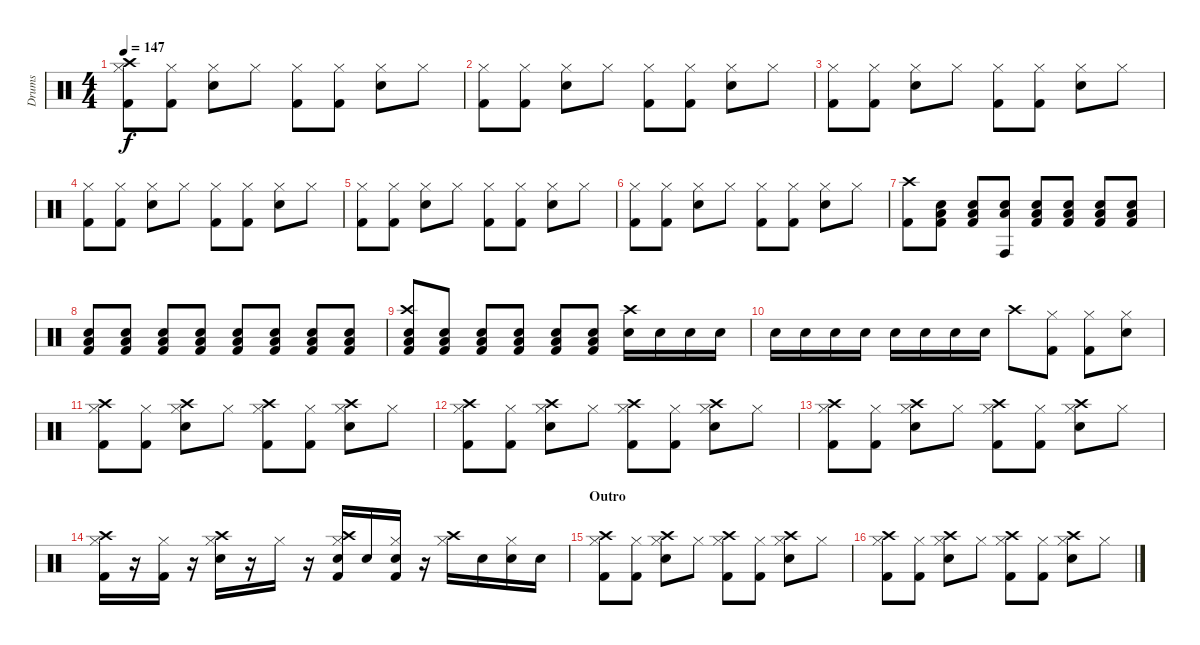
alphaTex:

\track ("Drums" "Drums") {instrument percussion}
\staff {score}
\articulation defaults
\ts (4 4)
\tempo 147
\clef neutral
\ks c
("Kick (hit) 2" "Hi-Hat (closed)" "Crash high (hit)").8{dy f} ("Kick (hit) 2" "Hi-Hat (closed)").8 ("Electric Snare (hit)" "Hi-Hat (closed)").8 "Hi-Hat (closed)".8 ("Kick (hit) 2" "Hi-Hat (closed)").8 ("Kick (hit) 2" "Hi-Hat (closed)").8 ("Electric Snare (hit)" "Hi-Hat (closed)").8 "Hi-Hat (closed)".8 |
("Kick (hit) 2" "Hi-Hat (closed)").8 ("Kick (hit) 2" "Hi-Hat (closed)").8 ("Electric Snare (hit)" "Hi-Hat (closed)").8 "Hi-Hat (closed)".8 ("Kick (hit) 2" "Hi-Hat (closed)").8 ("Kick (hit) 2" "Hi-Hat (closed)").8 ("Electric Snare (hit)" "Hi-Hat (closed)").8 "Hi-Hat (closed)".8 |
("Kick (hit) 2" "Hi-Hat (closed)").8 ("Kick (hit) 2" "Hi-Hat (closed)").8 ("Electric Snare (hit)" "Hi-Hat (closed)").8 "Hi-Hat (closed)".8 ("Kick (hit) 2" "Hi-Hat (closed)").8 ("Kick (hit) 2" "Hi-Hat (closed)").8 ("Electric Snare (hit)" "Hi-Hat (closed)").8 "Hi-Hat (closed)".8 |
("Kick (hit) 2" "Hi-Hat (closed)").8 ("Kick (hit) 2" "Hi-Hat (closed)").8 ("Electric Snare (hit)" "Hi-Hat (closed)").8 "Hi-Hat (closed)".8 ("Kick (hit) 2" "Hi-Hat (closed)").8 ("Kick (hit) 2" "Hi-Hat (closed)").8 ("Electric Snare (hit)" "Hi-Hat (closed)").8 "Hi-Hat (closed)".8 |
("Kick (hit) 2" "Hi-Hat (closed)").8 ("Kick (hit) 2" "Hi-Hat (closed)").8 ("Electric Snare (hit)" "Hi-Hat (closed)").8 "Hi-Hat (closed)".8 ("Kick (hit) 2" "Hi-Hat (closed)").8 ("Kick (hit) 2" "Hi-Hat (closed)").8 ("Electric Snare (hit)" "Hi-Hat (closed)").8 "Hi-Hat (closed)".8 |
("Kick (hit) 2" "Hi-Hat (closed)").8 ("Kick (hit) 2" "Hi-Hat (closed)").8 ("Electric Snare (hit)" "Hi-Hat (closed)").8 "Hi-Hat (closed)".8 ("Kick (hit) 2" "Hi-Hat (closed)").8 ("Kick (hit) 2" "Hi-Hat (closed)").8 ("Electric Snare (hit)" "Hi-Hat (closed)").8 "Hi-Hat (closed)".8 |
("Kick (hit) 2" "Crash high (hit)").8 ("Kick (hit) 2" "Electric Snare (hit)" "Low Tom (hit)").8 ("Kick (hit) 2" "Electric Snare (hit)" "Low Tom (hit)").8 ("Conga high (hit)" "Electric Snare (hit)" "Low Tom (hit)").8 ("Kick (hit) 2" "Electric Snare (hit)" "Low Tom (hit)").8 ("Kick (hit) 2" "Electric Snare (hit)" "Low Tom (hit)").8 ("Kick (hit) 2" "Electric Snare (hit)" "Low Tom (hit)").8 ("Kick (hit) 2" "Electric Snare (hit)" "Low Tom (hit)").8 |
("Kick (hit) 2" "Electric Snare (hit)" "Low Tom (hit)").8 ("Kick (hit) 2" "Electric Snare (hit)" "Low Tom (hit)").8 ("Kick (hit) 2" "Electric Snare (hit)" "Low Tom (hit)").8 ("Kick (hit) 2" "Electric Snare (hit)" "Low Tom (hit)").8 ("Kick (hit) 2" "Electric Snare (hit)" "Low Tom (hit)").8 ("Kick (hit) 2" "Electric Snare (hit)" "Low Tom (hit)").8 ("Kick (hit) 2" "Electric Snare (hit)" "Low Tom (hit)").8 ("Kick (hit) 2" "Electric Snare (hit)" "Low Tom (hit)").8 |
("Kick (hit) 2" "Electric Snare (hit)" "Low Tom (hit)" "Crash high (hit)").8 ("Kick (hit) 2" "Electric Snare (hit)" "Low Tom (hit)").8 ("Kick (hit) 2" "Electric Snare (hit)" "Low Tom (hit)").8 ("Kick (hit) 2" "Electric Snare (hit)" "Low Tom (hit)").8 ("Kick (hit) 2" "Electric Snare (hit)" "Low Tom (hit)").8 ("Kick (hit) 2" "Electric Snare (hit)" "Low Tom (hit)").8 ("Electric Snare (hit)" "Crash high (hit)").16 "Electric Snare (hit)".16 "Electric Snare (hit)".16 "Electric Snare (hit)".16 |
"Electric Snare (hit)".16 "Electric Snare (hit)".16 "Electric Snare (hit)".16 "Electric Snare (hit)".16 "Electric Snare (hit)".16 "Electric Snare (hit)".16 "Electric Snare (hit)".16 "Electric Snare (hit)".16 "Crash high (hit)".8 ("Kick (hit) 2" "Hi-Hat (closed)").8 ("Kick (hit) 2" "Hi-Hat (closed)").8 ("Electric Snare (hit)" "Hi-Hat (closed)").8 |
("Kick (hit) 2" "Hi-Hat (closed)" "Crash high (hit)").8 ("Kick (hit) 2" "Hi-Hat (closed)").8 ("Electric Snare (hit)" "Hi-Hat (closed)" "Crash high (hit)").8 "Hi-Hat (closed)".8 ("Kick (hit) 2" "Hi-Hat (closed)" "Crash high (hit)").8 ("Kick (hit) 2" "Hi-Hat (closed)").8 ("Electric Snare (hit)" "Hi-Hat (closed)" "Crash high (hit)").8 "Hi-Hat (closed)".8 |
("Kick (hit) 2" "Hi-Hat (closed)" "Crash high (hit)").8 ("Kick (hit) 2" "Hi-Hat (closed)").8 ("Electric Snare (hit)" "Hi-Hat (closed)" "Crash high (hit)").8 "Hi-Hat (closed)".8 ("Kick (hit) 2" "Hi-Hat (closed)" "Crash high (hit)").8 ("Kick (hit) 2" "Hi-Hat (closed)").8 ("Electric Snare (hit)" "Hi-Hat (closed)" "Crash high (hit)").8 "Hi-Hat (closed)".8 |
("Kick (hit) 2" "Hi-Hat (closed)" "Crash high (hit)").8 ("Kick (hit) 2" "Hi-Hat (closed)").8 ("Electric Snare (hit)" "Hi-Hat (closed)" "Crash high (hit)").8 "Hi-Hat (closed)".8 ("Kick (hit) 2" "Hi-Hat (closed)" "Crash high (hit)").8 ("Kick (hit) 2" "Hi-Hat (closed)").8 ("Electric Snare (hit)" "Hi-Hat (closed)" "Crash high (hit)").8 "Hi-Hat (closed)".8 |
("Kick (hit) 2" "Hi-Hat (closed)" "Crash high (hit)").16 r.16 ("Kick (hit) 2" "Hi-Hat (closed)").16 r.16 ("Electric Snare (hit)" "Hi-Hat (closed)" "Crash high (hit)").16 r.16 "Hi-Hat (closed)".16 r.16 ("Kick (hit) 2" "Electric Snare (hit)" "Hi-Hat (closed)" "Crash high (hit)").16 "Electric Snare (hit)".16 ("Kick (hit) 2" "Electric Snare (hit)" "Hi-Hat (closed)").16 r.16 ("Hi-Hat (closed)" "Crash high (hit)").16 "Electric Snare (hit)".16 ("Electric Snare (hit)" "Hi-Hat (closed)").16 "Electric Snare (hit)".16 |
\section ("" "Outro")
("Kick (hit) 2" "Hi-Hat (closed)" "Crash high (hit)").8 ("Kick (hit) 2" "Hi-Hat (closed)").8 ("Electric Snare (hit)" "Hi-Hat (closed)" "Crash high (hit)").8 "Hi-Hat (closed)".8 ("Kick (hit) 2" "Hi-Hat (closed)" "Crash high (hit)").8 ("Kick (hit) 2" "Hi-Hat (closed)").8 ("Electric Snare (hit)" "Hi-Hat (closed)" "Crash high (hit)").8 "Hi-Hat (closed)".8 |
("Kick (hit) 2" "Hi-Hat (closed)" "Crash high (hit)").8 ("Kick (hit) 2" "Hi-Hat (closed)").8 ("Electric Snare (hit)" "Hi-Hat (closed)" "Crash high (hit)").8 "Hi-Hat (closed)".8 ("Kick (hit) 2" "Hi-Hat (closed)" "Crash high (hit)").8 ("Kick (hit) 2" "Hi-Hat (closed)").8 ("Electric Snare (hit)" "Hi-Hat (closed)" "Crash high (hit)").8 "Hi-Hat (closed)".8
